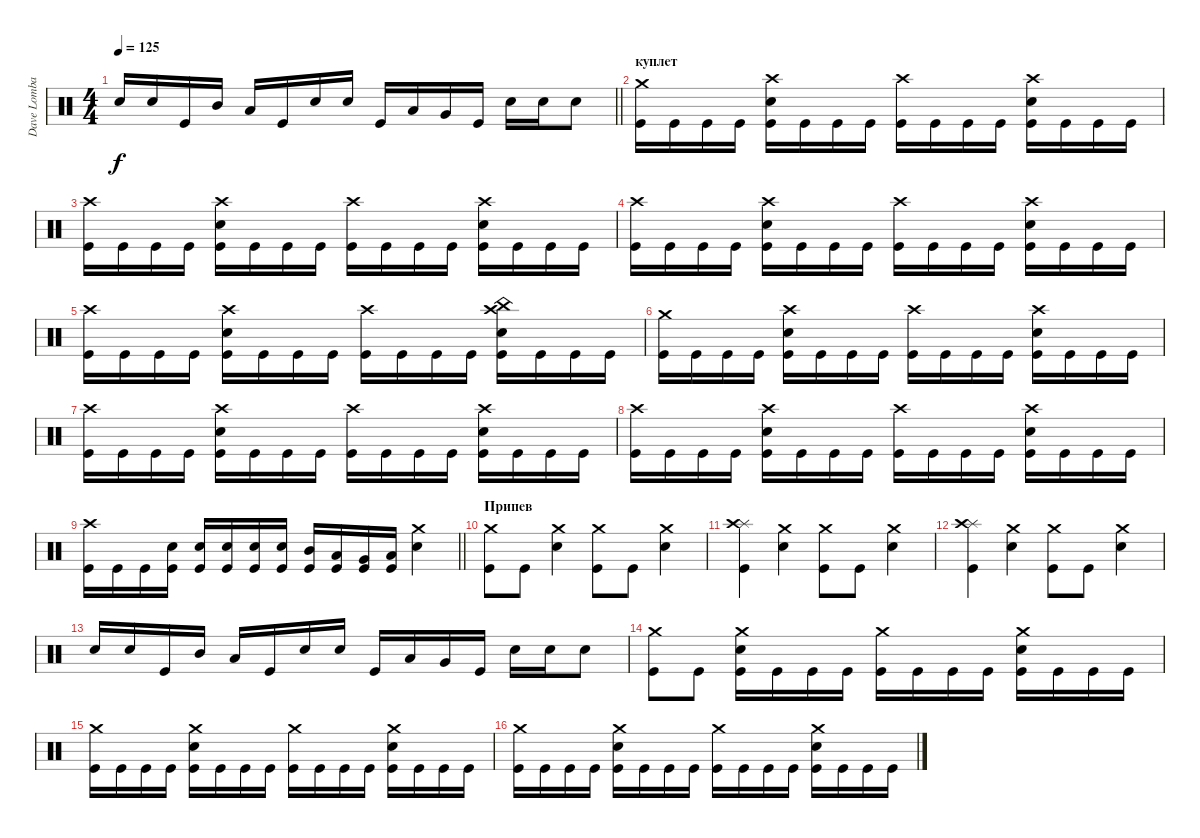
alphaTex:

\track ("Dave Lombardo" "Dave Lomba") {instrument percussion}
\staff {score}
\articulation defaults
\ts (4 4)
\tempo 125
\clef neutral
\barLineRight lightlight
\ks c "Snare (hit) 2".16{dy f} "Snare (hit) 2".16 "Kick (hit)".16 "Mid Tom (hit)".16 "Low Tom (hit)".16 "Kick (hit)".16 "Snare (hit) 2".16 "Snare (hit) 2".16 "Kick (hit)".16 "Low Tom (hit)".16 "Very Low Tom (hit)".16 "Kick (hit)".16 "Snare (hit) 2".16 "Snare (hit) 2".16 "Snare (hit) 2".8
|
\section ("" "куплет")
("Crash medium (hit)" "Kick (hit)").16 "Kick (hit)".16 "Kick (hit)".16 "Kick (hit)".16 ("Crash high (hit)" "Snare (hit) 2" "Kick (hit)").16 "Kick (hit)".16 "Kick (hit)".16 "Kick (hit)".16 ("Crash high (hit)" "Kick (hit)").16 "Kick (hit)".16 "Kick (hit)".16 "Kick (hit)".16 ("Crash high (hit)" "Snare (hit) 2" "Kick (hit)").16 "Kick (hit)".16 "Kick (hit)".16 "Kick (hit)".16 |
("Crash high (hit)" "Kick (hit)").16 "Kick (hit)".16 "Kick (hit)".16 "Kick (hit)".16 ("Crash high (hit)" "Snare (hit) 2" "Kick (hit)").16 "Kick (hit)".16 "Kick (hit)".16 "Kick (hit)".16 ("Crash high (hit)" "Kick (hit)").16 "Kick (hit)".16 "Kick (hit)".16 "Kick (hit)".16 ("Crash high (hit)" "Snare (hit) 2" "Kick (hit)").16 "Kick (hit)".16 "Kick (hit)".16 "Kick (hit)".16 |
("Crash high (hit)" "Kick (hit)").16 "Kick (hit)".16 "Kick (hit)".16 "Kick (hit)".16 ("Crash high (hit)" "Snare (hit) 2" "Kick (hit)").16 "Kick (hit)".16 "Kick (hit)".16 "Kick (hit)".16 ("Crash high (hit)" "Kick (hit)").16 "Kick (hit)".16 "Kick (hit)".16 "Kick (hit)".16 ("Crash high (hit)" "Snare (hit) 2" "Kick (hit)").16 "Kick (hit)".16 "Kick (hit)".16 "Kick (hit)".16 |
("Crash high (hit)" "Kick (hit)").16 "Kick (hit)".16 "Kick (hit)".16 "Kick (hit)".16 ("Crash high (hit)" "Snare (hit) 2" "Kick (hit)").16 "Kick (hit)".16 "Kick (hit)".16 "Kick (hit)".16 ("Crash high (hit)" "Kick (hit)").16 "Kick (hit)".16 "Kick (hit)".16 "Kick (hit)".16 ("China (hit)" "Crash high (hit)" "Snare (hit) 2" "Kick (hit)").16 "Kick (hit)".16 "Kick (hit)".16 "Kick (hit)".16 |
("Crash medium (hit)" "Kick (hit)").16 "Kick (hit)".16 "Kick (hit)".16 "Kick (hit)".16 ("Crash high (hit)" "Snare (hit) 2" "Kick (hit)").16 "Kick (hit)".16 "Kick (hit)".16 "Kick (hit)".16 ("Crash high (hit)" "Kick (hit)").16 "Kick (hit)".16 "Kick (hit)".16 "Kick (hit)".16 ("Crash high (hit)" "Snare (hit) 2" "Kick (hit)").16 "Kick (hit)".16 "Kick (hit)".16 "Kick (hit)".16 |
("Crash high (hit)" "Kick (hit)").16 "Kick (hit)".16 "Kick (hit)".16 "Kick (hit)".16 ("Crash high (hit)" "Snare (hit) 2" "Kick (hit)").16 "Kick (hit)".16 "Kick (hit)".16 "Kick (hit)".16 ("Crash high (hit)" "Kick (hit)").16 "Kick (hit)".16 "Kick (hit)".16 "Kick (hit)".16 ("Crash high (hit)" "Snare (hit) 2" "Kick (hit)").16 "Kick (hit)".16 "Kick (hit)".16 "Kick (hit)".16 |
("Crash high (hit)" "Kick (hit)").16 "Kick (hit)".16 "Kick (hit)".16 "Kick (hit)".16 ("Crash high (hit)" "Snare (hit) 2" "Kick (hit)").16 "Kick (hit)".16 "Kick (hit)".16 "Kick (hit)".16 ("Crash high (hit)" "Kick (hit)").16 "Kick (hit)".16 "Kick (hit)".16 "Kick (hit)".16 ("Crash high (hit)" "Snare (hit) 2" "Kick (hit)").16 "Kick (hit)".16 "Kick (hit)".16 "Kick (hit)".16 |
\barLineRight lightlight
("Crash high (hit)" "Kick (hit)").16 "Kick (hit)".16 "Kick (hit)".16 ("Snare (hit) 2" "Kick (hit)").16 ("Snare (hit) 2" "Kick (hit)").16 ("Snare (hit) 2" "Kick (hit)").16 ("Snare (hit) 2" "Kick (hit)").16 ("Snare (hit) 2" "Kick (hit)").16 ("Mid Tom (hit)" "Kick (hit)").16 ("Low Tom (hit)" "Kick (hit)").16 ("Very Low Tom (hit)" "Kick (hit)").16 ("Low Floor Tom (hit)" "Kick (hit)").16 ("Crash medium (hit)" "Snare (hit) 2").4 |
\section ("" "Припев")
("Crash medium (hit)" "Kick (hit)").8 "Kick (hit)".8 ("Crash medium (hit)" "Snare (hit) 2").4 ("Crash medium (hit)" "Kick (hit)").8 "Kick (hit)".8 ("Crash medium (hit)" "Snare (hit) 2").4 |
("Splash (hit)" "Crash high (hit)" "Kick (hit)").4 ("Crash medium (hit)" "Snare (hit) 2").4 ("Crash medium (hit)" "Kick (hit)").8 "Kick (hit)".8 ("Crash medium (hit)" "Snare (hit) 2").4 |
("Splash (hit)" "Crash high (hit)" "Kick (hit)").4 ("Crash medium (hit)" "Snare (hit) 2").4 ("Crash medium (hit)" "Kick (hit)").8 "Kick (hit)".8 ("Crash medium (hit)" "Snare (hit) 2").4 |
"Snare (hit) 2".16 "Snare (hit) 2".16 "Kick (hit)".16 "Mid Tom (hit)".16 "Low Tom (hit)".16 "Kick (hit)".16 "Snare (hit) 2".16 "Snare (hit) 2".16 "Kick (hit)".16 "Low Tom (hit)".16 "Very Low Tom (hit)".16 "Kick (hit)".16 "Snare (hit) 2".16 "Snare (hit) 2".16 "Snare (hit) 2".8 |
("Crash medium (hit)" "Kick (hit)").8 "Kick (hit)".8 ("Crash medium (hit)" "Snare (hit) 2" "Kick (hit)").16 "Kick (hit)".16 "Kick (hit)".16 "Kick (hit)".16 ("Crash medium (hit)" "Kick (hit)").16 "Kick (hit)".16 "Kick (hit)".16 "Kick (hit)".16 ("Crash medium (hit)" "Snare (hit) 2" "Kick (hit)").16 "Kick (hit)".16 "Kick (hit)".16 "Kick (hit)".16 |
("Crash medium (hit)" "Kick (hit)").16 "Kick (hit)".16 "Kick (hit)".16 "Kick (hit)".16 ("Crash medium (hit)" "Snare (hit) 2" "Kick (hit)").16 "Kick (hit)".16 "Kick (hit)".16 "Kick (hit)".16 ("Crash medium (hit)" "Kick (hit)").16 "Kick (hit)".16 "Kick (hit)".16 "Kick (hit)".16 ("Crash medium (hit)" "Snare (hit) 2" "Kick (hit)").16 "Kick (hit)".16 "Kick (hit)".16 "Kick (hit)".16 |
("Crash medium (hit)" "Kick (hit)").16 "Kick (hit)".16 "Kick (hit)".16 "Kick (hit)".16 ("Crash medium (hit)" "Snare (hit) 2" "Kick (hit)").16 "Kick (hit)".16 "Kick (hit)".16 "Kick (hit)".16 ("Crash medium (hit)" "Kick (hit)").16 "Kick (hit)".16 "Kick (hit)".16 "Kick (hit)".16 ("Crash medium (hit)" "Snare (hit) 2" "Kick (hit)").16 "Kick (hit)".16 "Kick (hit)".16 "Kick (hit)".16
